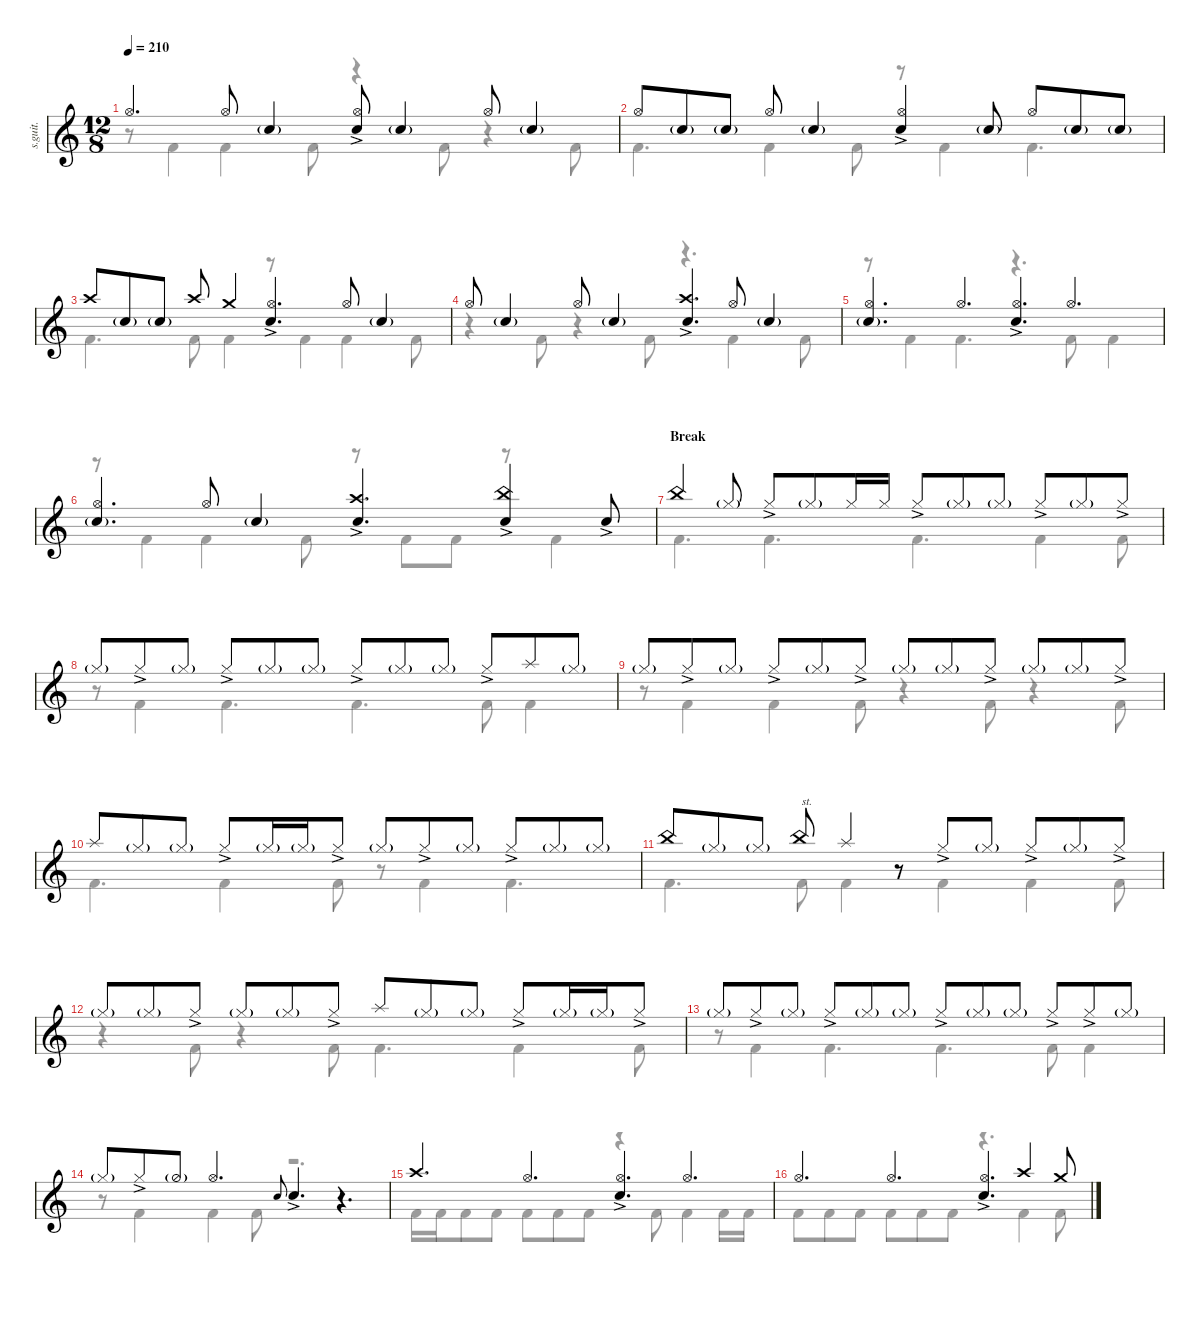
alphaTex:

\defaultSystemsLayout 4
\hideDynamics
\bracketExtendMode nobrackets
\track ("Percussion" "s.guit.") {instrument percussion}
\staff {score}
\articulation defaults
\voice
\ts (12 8)
\tempo 210
\clef g2
\ks c "Hi-Hat (open)".4{d lyrics (0 "") lyrics (1 "") lyrics (2 "") lyrics (3 "") lyrics (4 "") dy f} "Hi-Hat (open)".8{lyrics (0 "") lyrics (1 "") lyrics (2 "") lyrics (3 "") lyrics (4 "")} "Snare (hit) 2"{g}.4{lyrics (0 "") lyrics (1 "") lyrics (2 "") lyrics (3 "") lyrics (4 "") dy ff}
("Snare (hit) 2"{ac} "Hi-Hat (open)").8{lyrics (0 "") lyrics (1 "") lyrics (2 "") lyrics (3 "") lyrics (4 "") dy f} "Snare (hit) 2"{g}.4{lyrics (0 "") lyrics (1 "") lyrics (2 "") lyrics (3 "") lyrics (4 "") dy ff} "Hi-Hat (open)".8{lyrics (0 "") lyrics (1 "") lyrics (2 "") lyrics (3 "") lyrics (4 "") dy f} "Snare (hit) 2"{g}.4{lyrics (0 "") lyrics (1 "") lyrics (2 "") lyrics (3 "") lyrics (4 "") dy ff} |
"Hi-Hat (open)".8{lyrics (0 "") lyrics (1 "") lyrics (2 "") lyrics (3 "") lyrics (4 "") dy f} "Snare (hit) 2"{g}.8{lyrics (0 "") lyrics (1 "") lyrics (2 "") lyrics (3 "") lyrics (4 "") dy ff} "Snare (hit) 2"{g}.8{lyrics (0 "") lyrics (1 "") lyrics (2 "") lyrics (3 "") lyrics (4 "")} "Hi-Hat (open)".8{lyrics (0 "") lyrics (1 "") lyrics (2 "") lyrics (3 "") lyrics (4 "") dy f} "Snare (hit) 2"{g}.4{lyrics (0 "") lyrics (1 "") lyrics (2 "") lyrics (3 "") lyrics (4 "") dy ff} ("Snare (hit) 2"{ac} "Hi-Hat (open)").4{lyrics (0 "") lyrics (1 "") lyrics (2 "") lyrics (3 "") lyrics (4 "") dy f} "Snare (hit) 2"{g}.8{lyrics (0 "") lyrics (1 "") lyrics (2 "") lyrics (3 "") lyrics (4 "") dy ff} "Hi-Hat (open)".8{lyrics (0 "") lyrics (1 "") lyrics (2 "") lyrics (3 "") lyrics (4 "") dy f} "Snare (hit) 2"{g}.8{lyrics (0 "") lyrics (1 "") lyrics (2 "") lyrics (3 "") lyrics (4 "") dy ff} "Snare (hit) 2"{g}.8{lyrics (0 "") lyrics (1 "") lyrics (2 "") lyrics (3 "") lyrics (4 "")} |
"Crash high (hit)".8{lyrics (0 "") lyrics (1 "") lyrics (2 "") lyrics (3 "") lyrics (4 "") dy f} "Snare (hit) 2"{g}.8{lyrics (0 "") lyrics (1 "") lyrics (2 "") lyrics (3 "") lyrics (4 "") dy ff} "Snare (hit) 2"{g}.8{lyrics (0 "") lyrics (1 "") lyrics (2 "") lyrics (3 "") lyrics (4 "")} "Crash high (hit)".8{lyrics (0 "") lyrics (1 "") lyrics (2 "") lyrics (3 "") lyrics (4 "") dy f} "Crash medium (hit)".4{lyrics (0 "") lyrics (1 "") lyrics (2 "") lyrics (3 "") lyrics (4 "")} ("Snare (hit) 2"{ac} "Hi-Hat (open)").4{d lyrics (0 "") lyrics (1 "") lyrics (2 "") lyrics (3 "") lyrics (4 "")} "Hi-Hat (open)".8{lyrics (0 "") lyrics (1 "") lyrics (2 "") lyrics (3 "") lyrics (4 "")} "Snare (hit) 2"{g}.4{lyrics (0 "") lyrics (1 "") lyrics (2 "") lyrics (3 "") lyrics (4 "") dy ff} |
"Hi-Hat (open)".8{lyrics (0 "") lyrics (1 "") lyrics (2 "") lyrics (3 "") lyrics (4 "") dy f} "Snare (hit) 2"{g}.4{lyrics (0 "") lyrics (1 "") lyrics (2 "") lyrics (3 "") lyrics (4 "") dy ff} "Hi-Hat (open)".8{lyrics (0 "") lyrics (1 "") lyrics (2 "") lyrics (3 "") lyrics (4 "") dy f} "Snare (hit) 2"{g}.4{lyrics (0 "") lyrics (1 "") lyrics (2 "") lyrics (3 "") lyrics (4 "") dy ff} ("Snare (hit) 2"{ac} "Crash high (hit)").4{d lyrics (0 "") lyrics (1 "") lyrics (2 "") lyrics (3 "") lyrics (4 "") dy f} "Hi-Hat (open)".8{lyrics (0 "") lyrics (1 "") lyrics (2 "") lyrics (3 "") lyrics (4 "")} "Snare (hit) 2"{g}.4{lyrics (0 "") lyrics (1 "") lyrics (2 "") lyrics (3 "") lyrics (4 "") dy ff} |
("Snare (hit) 2"{g} "Hi-Hat (open)").4{d lyrics (0 "") lyrics (1 "") lyrics (2 "") lyrics (3 "") lyrics (4 "") dy f} "Hi-Hat (open)".4{d lyrics (0 "") lyrics (1 "") lyrics (2 "") lyrics (3 "") lyrics (4 "")} ("Snare (hit) 2"{ac} "Hi-Hat (open)").4{d lyrics (0 "") lyrics (1 "") lyrics (2 "") lyrics (3 "") lyrics (4 "")} "Hi-Hat (open)".4{d lyrics (0 "") lyrics (1 "") lyrics (2 "") lyrics (3 "") lyrics (4 "")} |
("Snare (hit) 2"{g} "Hi-Hat (open)").4{d lyrics (0 "") lyrics (1 "") lyrics (2 "") lyrics (3 "") lyrics (4 "")} "Hi-Hat (open)".8{lyrics (0 "") lyrics (1 "") lyrics (2 "") lyrics (3 "") lyrics (4 "")} "Snare (hit) 2"{g}.4{lyrics (0 "") lyrics (1 "") lyrics (2 "") lyrics (3 "") lyrics (4 "") dy ff} ("Snare (hit) 2"{ac} "Crash high (hit)").4{d lyrics (0 "") lyrics (1 "") lyrics (2 "") lyrics (3 "") lyrics (4 "") dy f} ("Snare (hit) 2"{ac} "China (hit)").4{lyrics (0 "") lyrics (1 "") lyrics (2 "") lyrics (3 "") lyrics (4 "")} "Snare (hit) 2"{ac}.8{lyrics (0 "") lyrics (1 "") lyrics (2 "") lyrics (3 "") lyrics (4 "") dy mf} |
\section ("" "Break")
"China (hit)".4{lyrics (0 "") lyrics (1 "") lyrics (2 "") lyrics (3 "") lyrics (4 "") dy f} "Hi-Hat (closed)"{g}.8{lyrics (0 "") lyrics (1 "") lyrics (2 "") lyrics (3 "") lyrics (4 "") dy ff} "Hi-Hat (closed)"{ac}.8{lyrics (0 "") lyrics (1 "") lyrics (2 "") lyrics (3 "") lyrics (4 "") dy mf} "Hi-Hat (closed)"{g}.8{lyrics (0 "") lyrics (1 "") lyrics (2 "") lyrics (3 "") lyrics (4 "") dy ff} "Hi-Hat (closed)".16{lyrics (0 "") lyrics (1 "") lyrics (2 "") lyrics (3 "") lyrics (4 "") dy f} "Hi-Hat (closed)".16{lyrics (0 "") lyrics (1 "") lyrics (2 "") lyrics (3 "") lyrics (4 "")} "Hi-Hat (closed)"{ac}.8{lyrics (0 "") lyrics (1 "") lyrics (2 "") lyrics (3 "") lyrics (4 "") dy mf} "Hi-Hat (closed)"{g}.8{lyrics (0 "") lyrics (1 "") lyrics (2 "") lyrics (3 "") lyrics (4 "") dy ff} "Hi-Hat (closed)"{g}.8{lyrics (0 "") lyrics (1 "") lyrics (2 "") lyrics (3 "") lyrics (4 "")} "Hi-Hat (closed)"{ac}.8{lyrics (0 "") lyrics (1 "") lyrics (2 "") lyrics (3 "") lyrics (4 "") dy mf} "Hi-Hat (closed)"{g}.8{lyrics (0 "") lyrics (1 "") lyrics (2 "") lyrics (3 "") lyrics (4 "") dy ff} "Hi-Hat (closed)"{ac}.8{lyrics (0 "") lyrics (1 "") lyrics (2 "") lyrics (3 "") lyrics (4 "") dy mf} |
"Hi-Hat (closed)"{g}.8{lyrics (0 "") lyrics (1 "") lyrics (2 "") lyrics (3 "") lyrics (4 "") dy ff} "Hi-Hat (closed)"{ac}.8{lyrics (0 "") lyrics (1 "") lyrics (2 "") lyrics (3 "") lyrics (4 "") dy mf} "Hi-Hat (closed)"{g}.8{lyrics (0 "") lyrics (1 "") lyrics (2 "") lyrics (3 "") lyrics (4 "") dy ff} "Hi-Hat (closed)"{ac}.8{lyrics (0 "") lyrics (1 "") lyrics (2 "") lyrics (3 "") lyrics (4 "") dy mf} "Hi-Hat (closed)"{g}.8{lyrics (0 "") lyrics (1 "") lyrics (2 "") lyrics (3 "") lyrics (4 "") dy ff} "Hi-Hat (closed)"{g}.8{lyrics (0 "") lyrics (1 "") lyrics (2 "") lyrics (3 "") lyrics (4 "")} "Hi-Hat (closed)"{ac}.8{lyrics (0 "") lyrics (1 "") lyrics (2 "") lyrics (3 "") lyrics (4 "") dy mf} "Hi-Hat (closed)"{g}.8{lyrics (0 "") lyrics (1 "") lyrics (2 "") lyrics (3 "") lyrics (4 "") dy ff} "Hi-Hat (closed)"{g}.8{lyrics (0 "") lyrics (1 "") lyrics (2 "") lyrics (3 "") lyrics (4 "")} "Hi-Hat (closed)"{ac}.8{lyrics (0 "") lyrics (1 "") lyrics (2 "") lyrics (3 "") lyrics (4 "") dy mf} "Splash (hit)".8{lyrics (0 "") lyrics (1 "") lyrics (2 "") lyrics (3 "") lyrics (4 "") dy f} "Hi-Hat (closed)"{g}.8{lyrics (0 "") lyrics (1 "") lyrics (2 "") lyrics (3 "") lyrics (4 "") dy ff} |
"Hi-Hat (closed)"{g}.8{lyrics (0 "") lyrics (1 "") lyrics (2 "") lyrics (3 "") lyrics (4 "")} "Hi-Hat (closed)"{ac}.8{lyrics (0 "") lyrics (1 "") lyrics (2 "") lyrics (3 "") lyrics (4 "") dy mf} "Hi-Hat (closed)"{g}.8{lyrics (0 "") lyrics (1 "") lyrics (2 "") lyrics (3 "") lyrics (4 "") dy ff} "Hi-Hat (closed)"{ac}.8{lyrics (0 "") lyrics (1 "") lyrics (2 "") lyrics (3 "") lyrics (4 "") dy mf} "Hi-Hat (closed)"{g}.8{lyrics (0 "") lyrics (1 "") lyrics (2 "") lyrics (3 "") lyrics (4 "") dy ff} "Hi-Hat (closed)"{ac}.8{lyrics (0 "") lyrics (1 "") lyrics (2 "") lyrics (3 "") lyrics (4 "") dy mf} "Hi-Hat (closed)"{g}.8{lyrics (0 "") lyrics (1 "") lyrics (2 "") lyrics (3 "") lyrics (4 "") dy ff} "Hi-Hat (closed)"{g}.8{lyrics (0 "") lyrics (1 "") lyrics (2 "") lyrics (3 "") lyrics (4 "")} "Hi-Hat (closed)"{ac}.8{lyrics (0 "") lyrics (1 "") lyrics (2 "") lyrics (3 "") lyrics (4 "") dy mf} "Hi-Hat (closed)"{g}.8{lyrics (0 "") lyrics (1 "") lyrics (2 "") lyrics (3 "") lyrics (4 "") dy ff} "Hi-Hat (closed)"{g}.8{lyrics (0 "") lyrics (1 "") lyrics (2 "") lyrics (3 "") lyrics (4 "")} "Hi-Hat (closed)"{ac}.8{lyrics (0 "") lyrics (1 "") lyrics (2 "") lyrics (3 "") lyrics (4 "") dy mf} |
"Splash (hit)".8{lyrics (0 "") lyrics (1 "") lyrics (2 "") lyrics (3 "") lyrics (4 "") dy f} "Hi-Hat (closed)"{g}.8{lyrics (0 "") lyrics (1 "") lyrics (2 "") lyrics (3 "") lyrics (4 "") dy ff} "Hi-Hat (closed)"{g}.8{lyrics (0 "") lyrics (1 "") lyrics (2 "") lyrics (3 "") lyrics (4 "")} "Hi-Hat (closed)"{ac}.8{lyrics (0 "") lyrics (1 "") lyrics (2 "") lyrics (3 "") lyrics (4 "") dy mf} "Hi-Hat (closed)"{g}.16{lyrics (0 "") lyrics (1 "") lyrics (2 "") lyrics (3 "") lyrics (4 "") dy ff} "Hi-Hat (closed)"{g}.16{lyrics (0 "") lyrics (1 "") lyrics (2 "") lyrics (3 "") lyrics (4 "")} "Hi-Hat (closed)"{ac}.8{lyrics (0 "") lyrics (1 "") lyrics (2 "") lyrics (3 "") lyrics (4 "") dy mf} "Hi-Hat (closed)"{g}.8{lyrics (0 "") lyrics (1 "") lyrics (2 "") lyrics (3 "") lyrics (4 "") dy ff} "Hi-Hat (closed)"{ac}.8{lyrics (0 "") lyrics (1 "") lyrics (2 "") lyrics (3 "") lyrics (4 "") dy mf} "Hi-Hat (closed)"{g}.8{lyrics (0 "") lyrics (1 "") lyrics (2 "") lyrics (3 "") lyrics (4 "") dy ff} "Hi-Hat (closed)"{ac}.8{lyrics (0 "") lyrics (1 "") lyrics (2 "") lyrics (3 "") lyrics (4 "") dy mf} "Hi-Hat (closed)"{g}.8{lyrics (0 "") lyrics (1 "") lyrics (2 "") lyrics (3 "") lyrics (4 "") dy ff} "Hi-Hat (closed)"{g}.8{lyrics (0 "") lyrics (1 "") lyrics (2 "") lyrics (3 "") lyrics (4 "")} |
"China (hit)".8{lyrics (0 "") lyrics (1 "") lyrics (2 "") lyrics (3 "") lyrics (4 "") dy f} "Hi-Hat (closed)"{g}.8{lyrics (0 "") lyrics (1 "") lyrics (2 "") lyrics (3 "") lyrics (4 "") dy ff} "Hi-Hat (closed)"{g}.8{lyrics (0 "") lyrics (1 "") lyrics (2 "") lyrics (3 "") lyrics (4 "")} "China (hit)".8{txt "st." lyrics (0 "") lyrics (1 "") lyrics (2 "") lyrics (3 "") lyrics (4 "") dy f} "Splash (hit)".4{lyrics (0 "") lyrics (1 "") lyrics (2 "") lyrics (3 "") lyrics (4 "")} r.8 "Hi-Hat (closed)"{ac}.8{lyrics (0 "") lyrics (1 "") lyrics (2 "") lyrics (3 "") lyrics (4 "") dy mf} "Hi-Hat (closed)"{g}.8{lyrics (0 "") lyrics (1 "") lyrics (2 "") lyrics (3 "") lyrics (4 "") dy ff} "Hi-Hat (closed)"{ac}.8{lyrics (0 "") lyrics (1 "") lyrics (2 "") lyrics (3 "") lyrics (4 "") dy mf} "Hi-Hat (closed)"{g}.8{lyrics (0 "") lyrics (1 "") lyrics (2 "") lyrics (3 "") lyrics (4 "") dy ff} "Hi-Hat (closed)"{ac}.8{lyrics (0 "") lyrics (1 "") lyrics (2 "") lyrics (3 "") lyrics (4 "") dy mf} |
"Hi-Hat (closed)"{g}.8{lyrics (0 "") lyrics (1 "") lyrics (2 "") lyrics (3 "") lyrics (4 "") dy ff} "Hi-Hat (closed)"{g}.8{lyrics (0 "") lyrics (1 "") lyrics (2 "") lyrics (3 "") lyrics (4 "")} "Hi-Hat (closed)"{ac}.8{lyrics (0 "") lyrics (1 "") lyrics (2 "") lyrics (3 "") lyrics (4 "") dy mf} "Hi-Hat (closed)"{g}.8{lyrics (0 "") lyrics (1 "") lyrics (2 "") lyrics (3 "") lyrics (4 "") dy ff} "Hi-Hat (closed)"{g}.8{lyrics (0 "") lyrics (1 "") lyrics (2 "") lyrics (3 "") lyrics (4 "")} "Hi-Hat (closed)"{ac}.8{lyrics (0 "") lyrics (1 "") lyrics (2 "") lyrics (3 "") lyrics (4 "") dy mf} "Splash (hit)".8{lyrics (0 "") lyrics (1 "") lyrics (2 "") lyrics (3 "") lyrics (4 "") dy f} "Hi-Hat (closed)"{g}.8{lyrics (0 "") lyrics (1 "") lyrics (2 "") lyrics (3 "") lyrics (4 "") dy ff} "Hi-Hat (closed)"{g}.8{lyrics (0 "") lyrics (1 "") lyrics (2 "") lyrics (3 "") lyrics (4 "")} "Hi-Hat (closed)"{ac}.8{lyrics (0 "") lyrics (1 "") lyrics (2 "") lyrics (3 "") lyrics (4 "") dy mf} "Hi-Hat (closed)"{g}.16{lyrics (0 "") lyrics (1 "") lyrics (2 "") lyrics (3 "") lyrics (4 "") dy ff} "Hi-Hat (closed)"{g}.16{lyrics (0 "") lyrics (1 "") lyrics (2 "") lyrics (3 "") lyrics (4 "")} "Hi-Hat (closed)"{ac}.8{lyrics (0 "") lyrics (1 "") lyrics (2 "") lyrics (3 "") lyrics (4 "") dy mf} |
"Hi-Hat (closed)"{g}.8{lyrics (0 "") lyrics (1 "") lyrics (2 "") lyrics (3 "") lyrics (4 "") dy ff} "Hi-Hat (closed)"{ac}.8{lyrics (0 "") lyrics (1 "") lyrics (2 "") lyrics (3 "") lyrics (4 "") dy mf} "Hi-Hat (closed)"{g}.8{lyrics (0 "") lyrics (1 "") lyrics (2 "") lyrics (3 "") lyrics (4 "") dy ff} "Hi-Hat (closed)"{ac}.8{lyrics (0 "") lyrics (1 "") lyrics (2 "") lyrics (3 "") lyrics (4 "") dy mf} "Hi-Hat (closed)"{g}.8{lyrics (0 "") lyrics (1 "") lyrics (2 "") lyrics (3 "") lyrics (4 "") dy ff} "Hi-Hat (closed)"{g}.8{lyrics (0 "") lyrics (1 "") lyrics (2 "") lyrics (3 "") lyrics (4 "")} "Hi-Hat (closed)"{ac}.8{lyrics (0 "") lyrics (1 "") lyrics (2 "") lyrics (3 "") lyrics (4 "") dy mf} "Hi-Hat (closed)"{g}.8{lyrics (0 "") lyrics (1 "") lyrics (2 "") lyrics (3 "") lyrics (4 "") dy ff} "Hi-Hat (closed)"{g}.8{lyrics (0 "") lyrics (1 "") lyrics (2 "") lyrics (3 "") lyrics (4 "")} "Hi-Hat (closed)"{ac}.8{lyrics (0 "") lyrics (1 "") lyrics (2 "") lyrics (3 "") lyrics (4 "") dy mf} "Hi-Hat (closed)"{ac}.8{lyrics (0 "") lyrics (1 "") lyrics (2 "") lyrics (3 "") lyrics (4 "")} "Hi-Hat (closed)"{g}.8{lyrics (0 "") lyrics (1 "") lyrics (2 "") lyrics (3 "") lyrics (4 "") dy ff} |
"Hi-Hat (closed)"{g}.8{lyrics (0 "") lyrics (1 "") lyrics (2 "") lyrics (3 "") lyrics (4 "")} "Hi-Hat (closed)"{ac}.8{lyrics (0 "") lyrics (1 "") lyrics (2 "") lyrics (3 "") lyrics (4 "") dy mf} "Hi-Hat (half)"{g}.8{lyrics (0 "") lyrics (1 "") lyrics (2 "") lyrics (3 "") lyrics (4 "") dy ff} "Hi-Hat (open)".4{d lyrics (0 "") lyrics (1 "") lyrics (2 "") lyrics (3 "") lyrics (4 "") dy f} "Snare (hit) 2".8{lyrics (0 "") lyrics (1 "") lyrics (2 "") lyrics (3 "") lyrics (4 "") gr onbeat dy mf} "Snare (hit) 2"{ac}.4{d lyrics (0 "") lyrics (1 "") lyrics (2 "") lyrics (3 "") lyrics (4 "")} r.4{d} |
"Crash high (hit)".4{d lyrics (0 "") lyrics (1 "") lyrics (2 "") lyrics (3 "") lyrics (4 "") dy f} "Hi-Hat (open)".4{d lyrics (0 "") lyrics (1 "") lyrics (2 "") lyrics (3 "") lyrics (4 "")} ("Hi-Hat (open)" "Snare (hit) 2"{ac}).4{d lyrics (0 "") lyrics (1 "") lyrics (2 "") lyrics (3 "") lyrics (4 "")} "Hi-Hat (open)".4{d lyrics (0 "") lyrics (1 "") lyrics (2 "") lyrics (3 "") lyrics (4 "")} |
"Hi-Hat (open)".4{d lyrics (0 "") lyrics (1 "") lyrics (2 "") lyrics (3 "") lyrics (4 "")} "Hi-Hat (open)".4{d lyrics (0 "") lyrics (1 "") lyrics (2 "") lyrics (3 "") lyrics (4 "")} ("Hi-Hat (open)" "Snare (hit) 2"{ac}).4{d lyrics (0 "") lyrics (1 "") lyrics (2 "") lyrics (3 "") lyrics (4 "")} "Crash high (hit)".4{lyrics (0 "") lyrics (1 "") lyrics (2 "") lyrics (3 "") lyrics (4 "")} "Crash medium (hit)".8{lyrics (0 "") lyrics (1 "") lyrics (2 "") lyrics (3 "") lyrics (4 "")}
\voice
\clef g2
\ottava regular
\simile none
\ks c
r.8{dy f} "Kick (hit) 2".4{lyrics (0 "") lyrics (1 "") lyrics (2 "") lyrics (3 "") lyrics (4 "")} "Kick (hit) 2".4{lyrics (0 "") lyrics (1 "") lyrics (2 "") lyrics (3 "") lyrics (4 "")} "Kick (hit) 2".8{lyrics (0 "") lyrics (1 "") lyrics (2 "") lyrics (3 "") lyrics (4 "")} r.4 "Kick (hit) 2".8{lyrics (0 "") lyrics (1 "") lyrics (2 "") lyrics (3 "") lyrics (4 "")} r.4 "Kick (hit) 2".8{lyrics (0 "") lyrics (1 "") lyrics (2 "") lyrics (3 "") lyrics (4 "")} |
"Kick (hit) 2".4{d lyrics (0 "") lyrics (1 "") lyrics (2 "") lyrics (3 "") lyrics (4 "")} "Kick (hit) 2".4{lyrics (0 "") lyrics (1 "") lyrics (2 "") lyrics (3 "") lyrics (4 "")} "Kick (hit) 2".8{lyrics (0 "") lyrics (1 "") lyrics (2 "") lyrics (3 "") lyrics (4 "")} r.8 "Kick (hit) 2".4{lyrics (0 "") lyrics (1 "") lyrics (2 "") lyrics (3 "") lyrics (4 "")} "Kick (hit) 2".4{d lyrics (0 "") lyrics (1 "") lyrics (2 "") lyrics (3 "") lyrics (4 "")} |
"Kick (hit) 2".4{d lyrics (0 "") lyrics (1 "") lyrics (2 "") lyrics (3 "") lyrics (4 "")} "Kick (hit) 2".8{lyrics (0 "") lyrics (1 "") lyrics (2 "") lyrics (3 "") lyrics (4 "")} "Kick (hit) 2".4{lyrics (0 "") lyrics (1 "") lyrics (2 "") lyrics (3 "") lyrics (4 "")} r.8 "Kick (hit) 2".4{lyrics (0 "") lyrics (1 "") lyrics (2 "") lyrics (3 "") lyrics (4 "")} "Kick (hit) 2".4{lyrics (0 "") lyrics (1 "") lyrics (2 "") lyrics (3 "") lyrics (4 "")} "Kick (hit) 2".8{lyrics (0 "") lyrics (1 "") lyrics (2 "") lyrics (3 "") lyrics (4 "")} |
r.4 "Kick (hit) 2".8{lyrics (0 "") lyrics (1 "") lyrics (2 "") lyrics (3 "") lyrics (4 "")} r.4 "Kick (hit) 2".8{lyrics (0 "") lyrics (1 "") lyrics (2 "") lyrics (3 "") lyrics (4 "")} r.4{d} "Kick (hit) 2".4{lyrics (0 "") lyrics (1 "") lyrics (2 "") lyrics (3 "") lyrics (4 "")} "Kick (hit) 2".8{lyrics (0 "") lyrics (1 "") lyrics (2 "") lyrics (3 "") lyrics (4 "")} |
r.8 "Kick (hit) 2".4{lyrics (0 "") lyrics (1 "") lyrics (2 "") lyrics (3 "") lyrics (4 "")} "Kick (hit) 2".4{d lyrics (0 "") lyrics (1 "") lyrics (2 "") lyrics (3 "") lyrics (4 "")} r.4{d} "Kick (hit) 2".8{lyrics (0 "") lyrics (1 "") lyrics (2 "") lyrics (3 "") lyrics (4 "")} "Kick (hit) 2".4{lyrics (0 "") lyrics (1 "") lyrics (2 "") lyrics (3 "") lyrics (4 "")} |
r.8 "Kick (hit) 2".4{lyrics (0 "") lyrics (1 "") lyrics (2 "") lyrics (3 "") lyrics (4 "")} "Kick (hit) 2".4{lyrics (0 "") lyrics (1 "") lyrics (2 "") lyrics (3 "") lyrics (4 "")} "Kick (hit) 2".8{lyrics (0 "") lyrics (1 "") lyrics (2 "") lyrics (3 "") lyrics (4 "")} r.8 "Kick (hit) 2".8{lyrics (0 "") lyrics (1 "") lyrics (2 "") lyrics (3 "") lyrics (4 "")} "Kick (hit) 2".8{lyrics (0 "") lyrics (1 "") lyrics (2 "") lyrics (3 "") lyrics (4 "")} r.8 "Kick (hit) 2".4{lyrics (0 "") lyrics (1 "") lyrics (2 "") lyrics (3 "") lyrics (4 "")} |
"Kick (hit) 2".4{d lyrics (0 "") lyrics (1 "") lyrics (2 "") lyrics (3 "") lyrics (4 "")} "Kick (hit) 2".4{d lyrics (0 "") lyrics (1 "") lyrics (2 "") lyrics (3 "") lyrics (4 "")} "Kick (hit) 2".4{d lyrics (0 "") lyrics (1 "") lyrics (2 "") lyrics (3 "") lyrics (4 "")} "Kick (hit) 2".4{lyrics (0 "") lyrics (1 "") lyrics (2 "") lyrics (3 "") lyrics (4 "")} "Kick (hit) 2".8{lyrics (0 "") lyrics (1 "") lyrics (2 "") lyrics (3 "") lyrics (4 "")} |
r.8 "Kick (hit) 2".4{lyrics (0 "") lyrics (1 "") lyrics (2 "") lyrics (3 "") lyrics (4 "")} "Kick (hit) 2".4{d lyrics (0 "") lyrics (1 "") lyrics (2 "") lyrics (3 "") lyrics (4 "")} "Kick (hit) 2".4{d lyrics (0 "") lyrics (1 "") lyrics (2 "") lyrics (3 "") lyrics (4 "")} "Kick (hit) 2".8{lyrics (0 "") lyrics (1 "") lyrics (2 "") lyrics (3 "") lyrics (4 "")} "Kick (hit) 2".4{lyrics (0 "") lyrics (1 "") lyrics (2 "") lyrics (3 "") lyrics (4 "")} |
r.8 "Kick (hit) 2".4{lyrics (0 "") lyrics (1 "") lyrics (2 "") lyrics (3 "") lyrics (4 "")} "Kick (hit) 2".4{lyrics (0 "") lyrics (1 "") lyrics (2 "") lyrics (3 "") lyrics (4 "")} "Kick (hit) 2".8{lyrics (0 "") lyrics (1 "") lyrics (2 "") lyrics (3 "") lyrics (4 "")} r.4 "Kick (hit) 2".8{lyrics (0 "") lyrics (1 "") lyrics (2 "") lyrics (3 "") lyrics (4 "")} r.4 "Kick (hit) 2".8{lyrics (0 "") lyrics (1 "") lyrics (2 "") lyrics (3 "") lyrics (4 "")} |
"Kick (hit) 2".4{d lyrics (0 "") lyrics (1 "") lyrics (2 "") lyrics (3 "") lyrics (4 "")} "Kick (hit) 2".4{lyrics (0 "") lyrics (1 "") lyrics (2 "") lyrics (3 "") lyrics (4 "")} "Kick (hit) 2".8{lyrics (0 "") lyrics (1 "") lyrics (2 "") lyrics (3 "") lyrics (4 "")} r.8 "Kick (hit) 2".4{lyrics (0 "") lyrics (1 "") lyrics (2 "") lyrics (3 "") lyrics (4 "")} "Kick (hit) 2".4{d lyrics (0 "") lyrics (1 "") lyrics (2 "") lyrics (3 "") lyrics (4 "")} |
"Kick (hit) 2".4{d lyrics (0 "") lyrics (1 "") lyrics (2 "") lyrics (3 "") lyrics (4 "")} "Kick (hit) 2".8{lyrics (0 "") lyrics (1 "") lyrics (2 "") lyrics (3 "") lyrics (4 "")} "Kick (hit) 2".4{lyrics (0 "") lyrics (1 "") lyrics (2 "") lyrics (3 "") lyrics (4 "")} r.8 "Kick (hit) 2".4{lyrics (0 "") lyrics (1 "") lyrics (2 "") lyrics (3 "") lyrics (4 "")} "Kick (hit) 2".4{lyrics (0 "") lyrics (1 "") lyrics (2 "") lyrics (3 "") lyrics (4 "")} "Kick (hit) 2".8{lyrics (0 "") lyrics (1 "") lyrics (2 "") lyrics (3 "") lyrics (4 "")} |
r.4 "Kick (hit) 2".8{lyrics (0 "") lyrics (1 "") lyrics (2 "") lyrics (3 "") lyrics (4 "")} r.4 "Kick (hit) 2".8{lyrics (0 "") lyrics (1 "") lyrics (2 "") lyrics (3 "") lyrics (4 "")} "Kick (hit) 2".4{d lyrics (0 "") lyrics (1 "") lyrics (2 "") lyrics (3 "") lyrics (4 "")} "Kick (hit) 2".4{lyrics (0 "") lyrics (1 "") lyrics (2 "") lyrics (3 "") lyrics (4 "")} "Kick (hit) 2".8{lyrics (0 "") lyrics (1 "") lyrics (2 "") lyrics (3 "") lyrics (4 "")} |
r.8 "Kick (hit) 2".4{lyrics (0 "") lyrics (1 "") lyrics (2 "") lyrics (3 "") lyrics (4 "")} "Kick (hit) 2".4{d lyrics (0 "") lyrics (1 "") lyrics (2 "") lyrics (3 "") lyrics (4 "")} "Kick (hit) 2".4{d lyrics (0 "") lyrics (1 "") lyrics (2 "") lyrics (3 "") lyrics (4 "")} "Kick (hit) 2".8{lyrics (0 "") lyrics (1 "") lyrics (2 "") lyrics (3 "") lyrics (4 "")} "Kick (hit) 2".4{lyrics (0 "") lyrics (1 "") lyrics (2 "") lyrics (3 "") lyrics (4 "")} |
r.8 "Kick (hit) 2".4{lyrics (0 "") lyrics (1 "") lyrics (2 "") lyrics (3 "") lyrics (4 "")} "Kick (hit) 2".4{lyrics (0 "") lyrics (1 "") lyrics (2 "") lyrics (3 "") lyrics (4 "")} "Kick (hit) 2".8{lyrics (0 "") lyrics (1 "") lyrics (2 "") lyrics (3 "") lyrics (4 "")} r.2{d} |
"Kick (hit) 2".16{lyrics (0 "") lyrics (1 "") lyrics (2 "") lyrics (3 "") lyrics (4 "")} "Kick (hit) 2".16{lyrics (0 "") lyrics (1 "") lyrics (2 "") lyrics (3 "") lyrics (4 "")} "Kick (hit) 2".8{lyrics (0 "") lyrics (1 "") lyrics (2 "") lyrics (3 "") lyrics (4 "")} "Kick (hit) 2".8{lyrics (0 "") lyrics (1 "") lyrics (2 "") lyrics (3 "") lyrics (4 "")} "Kick (hit) 2".8{lyrics (0 "") lyrics (1 "") lyrics (2 "") lyrics (3 "") lyrics (4 "")} "Kick (hit) 2".8{lyrics (0 "") lyrics (1 "") lyrics (2 "") lyrics (3 "") lyrics (4 "")} "Kick (hit) 2".8{lyrics (0 "") lyrics (1 "") lyrics (2 "") lyrics (3 "") lyrics (4 "")} r.4 "Kick (hit) 2".8{lyrics (0 "") lyrics (1 "") lyrics (2 "") lyrics (3 "") lyrics (4 "")} "Kick (hit) 2".4{lyrics (0 "") lyrics (1 "") lyrics (2 "") lyrics (3 "") lyrics (4 "")} "Kick (hit) 2".16{lyrics (0 "") lyrics (1 "") lyrics (2 "") lyrics (3 "") lyrics (4 "")} "Kick (hit) 2".16{lyrics (0 "") lyrics (1 "") lyrics (2 "") lyrics (3 "") lyrics (4 "")} |
"Kick (hit) 2".8{lyrics (0 "") lyrics (1 "") lyrics (2 "") lyrics (3 "") lyrics (4 "")} "Kick (hit) 2".8{lyrics (0 "") lyrics (1 "") lyrics (2 "") lyrics (3 "") lyrics (4 "")} "Kick (hit) 2".8{lyrics (0 "") lyrics (1 "") lyrics (2 "") lyrics (3 "") lyrics (4 "")} "Kick (hit) 2".8{lyrics (0 "") lyrics (1 "") lyrics (2 "") lyrics (3 "") lyrics (4 "")} "Kick (hit) 2".8{lyrics (0 "") lyrics (1 "") lyrics (2 "") lyrics (3 "") lyrics (4 "")} "Kick (hit) 2".8{lyrics (0 "") lyrics (1 "") lyrics (2 "") lyrics (3 "") lyrics (4 "")} r.4{d} "Kick (hit) 2".4{lyrics (0 "") lyrics (1 "") lyrics (2 "") lyrics (3 "") lyrics (4 "")} "Kick (hit) 2".8{lyrics (0 "") lyrics (1 "") lyrics (2 "") lyrics (3 "") lyrics (4 "")}
